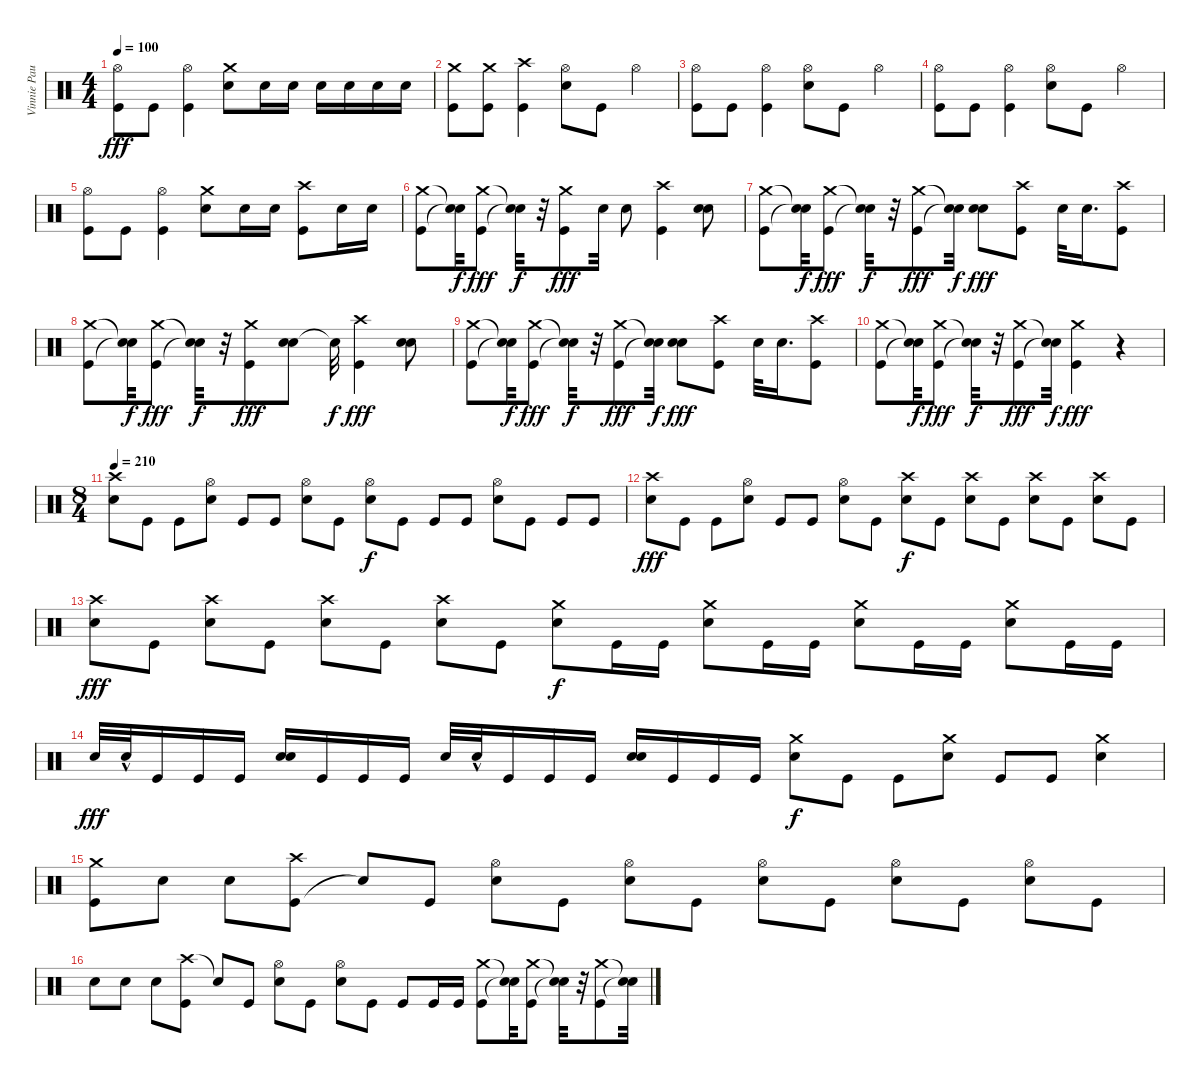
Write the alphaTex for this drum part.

\track ("Vinnie Paul (Drums)" "Vinnie Pau") {instrument percussion}
\staff {score}
\articulation defaults
\ts (4 4)
\tempo 100
\clef neutral
\ks c
("Kick (hit)" "Hi-Hat (open)").8{dy fff} "Kick (hit)".8 ("Kick (hit)" "Hi-Hat (open)").4 ("Electric Snare (hit)" "Crash medium (hit)").8 "Electric Snare (hit)".16 "Electric Snare (hit)".16 "Electric Snare (hit)".16 "Electric Snare (hit)".16 "Electric Snare (hit)".16 "Electric Snare (hit)".16 |
("Kick (hit)" "Crash medium (hit)").8 ("Kick (hit)" "Crash medium (hit)").8 ("Kick (hit)" "Crash high (hit)").4 ("Hi-Hat (open)" "Electric Snare (hit)").8 "Kick (hit)".8 "Hi-Hat (open)".4 |
("Kick (hit)" "Hi-Hat (open)").8 "Kick (hit)".8 ("Kick (hit)" "Hi-Hat (open)").4 ("Electric Snare (hit)" "Hi-Hat (open)").8 "Kick (hit)".8 "Hi-Hat (open)".4 |
("Kick (hit)" "Hi-Hat (open)").8 "Kick (hit)".8 ("Kick (hit)" "Hi-Hat (open)").4 ("Electric Snare (hit)" "Hi-Hat (open)").8 "Kick (hit)".8 "Hi-Hat (open)".4 |
("Kick (hit)" "Hi-Hat (open)").8 "Kick (hit)".8 ("Kick (hit)" "Hi-Hat (open)").4 ("Electric Snare (hit)" "Crash medium (hit)").8 "Electric Snare (hit)".16 "Electric Snare (hit)".16 ("Crash high (hit)" "Kick (hit)").8 "Electric Snare (hit)".16 "Electric Snare (hit)".16 |
("Kick (hit)" "Crash medium (hit)").8 ("Snare (hit)"{t} "Snare (hit)"{t}).32{dy f} ("Kick (hit)" "Crash medium (hit)").8{dy fff} ("Snare (hit)"{t} "Snare (hit)"{t}).32{dy f} r.32 ("Kick (hit)" "Crash medium (hit)").8{dy fff} "Electric Snare (hit)".32 "Electric Snare (hit)".8 ("Crash high (hit)" "Kick (hit)").4 ("Electric Snare (hit)" "Electric Snare (hit)").8 |
("Kick (hit)" "Crash medium (hit)").8 ("Snare (hit)"{t} "Snare (hit)"{t}).32{dy f} ("Kick (hit)" "Crash medium (hit)").8{dy fff} ("Snare (hit)"{t} "Snare (hit)"{t}).32{dy f} r.32 ("Kick (hit)" "Crash medium (hit)").8{dy fff} ("Snare (hit)"{t} "Snare (hit)"{t}).32{dy f} ("Electric Snare (hit)" "Electric Snare (hit)").8{dy fff} ("Crash high (hit)" "Kick (hit)").8 "Electric Snare (hit)".32 "Electric Snare (hit)".16{d} ("Crash high (hit)" "Kick (hit)").8 |
("Kick (hit)" "Crash medium (hit)").8 ("Snare (hit)"{t} "Snare (hit)"{t}).32{dy f} ("Kick (hit)" "Crash medium (hit)").8{dy fff} ("Snare (hit)"{t} "Snare (hit)"{t}).32{dy f} r.32 ("Kick (hit)" "Crash medium (hit)").8{dy fff} ("Electric Snare (hit)" "Electric Snare (hit)").8 "Snare (hit)"{t}.32{dy f} ("Crash high (hit)" "Kick (hit)").4{dy fff} ("Electric Snare (hit)" "Electric Snare (hit)").8 |
("Kick (hit)" "Crash medium (hit)").8 ("Snare (hit)"{t} "Snare (hit)"{t}).32{dy f} ("Kick (hit)" "Crash medium (hit)").8{dy fff} ("Snare (hit)"{t} "Snare (hit)"{t}).32{dy f} r.32 ("Kick (hit)" "Crash medium (hit)").8{dy fff} ("Snare (hit)"{t} "Snare (hit)"{t}).32{dy f} ("Electric Snare (hit)" "Electric Snare (hit)").8{dy fff} ("Crash high (hit)" "Kick (hit)").8 "Electric Snare (hit)".32 "Electric Snare (hit)".16{d} ("Crash high (hit)" "Kick (hit)").8 |
("Kick (hit)" "Crash medium (hit)").8 ("Snare (hit)"{t} "Snare (hit)"{t}).32{dy f} ("Kick (hit)" "Crash medium (hit)").8{dy fff} ("Snare (hit)"{t} "Snare (hit)"{t}).32{dy f} r.32 ("Kick (hit)" "Crash medium (hit)").8{dy fff} ("Snare (hit)"{t} "Snare (hit)"{t}).32{dy f} ("Kick (hit)" "Crash medium (hit)").4{dy fff} r.4 |
\ts (8 4)
\tempo 210
("Electric Snare (hit)" "Crash high (hit)").8 "Kick (hit)".8 "Kick (hit)".8 ("Hi-Hat (open)" "Electric Snare (hit)").8 "Kick (hit)".8 "Kick (hit)".8 ("Hi-Hat (open)" "Electric Snare (hit)").8 "Kick (hit)".8 ("Hi-Hat (open)" "Electric Snare (hit)").8{dy f} "Kick (hit)".8 "Kick (hit)".8 "Kick (hit)".8 ("Hi-Hat (open)" "Electric Snare (hit)").8 "Kick (hit)".8 "Kick (hit)".8 "Kick (hit)".8 |
("Electric Snare (hit)" "Crash high (hit)").8{dy fff} "Kick (hit)".8 "Kick (hit)".8 ("Hi-Hat (open)" "Electric Snare (hit)").8 "Kick (hit)".8 "Kick (hit)".8 ("Hi-Hat (open)" "Electric Snare (hit)").8 "Kick (hit)".8 ("Crash high (hit)" "Electric Snare (hit)").8{dy f} "Kick (hit)".8 ("Crash high (hit)" "Electric Snare (hit)").8 "Kick (hit)".8 ("Crash high (hit)" "Electric Snare (hit)").8 "Kick (hit)".8 ("Crash high (hit)" "Electric Snare (hit)").8 "Kick (hit)".8 |
("Crash high (hit)" "Electric Snare (hit)").8{dy fff} "Kick (hit)".8 ("Crash high (hit)" "Electric Snare (hit)").8 "Kick (hit)".8 ("Crash high (hit)" "Electric Snare (hit)").8 "Kick (hit)".8 ("Crash high (hit)" "Electric Snare (hit)").8 "Kick (hit)".8 ("Crash medium (hit)" "Electric Snare (hit)").8{dy f} "Kick (hit)".16 "Kick (hit)".16 ("Crash medium (hit)" "Electric Snare (hit)").8 "Kick (hit)".16 "Kick (hit)".16 ("Crash medium (hit)" "Electric Snare (hit)").8 "Kick (hit)".16 "Kick (hit)".16 ("Crash medium (hit)" "Electric Snare (hit)").8 "Kick (hit)".16 "Kick (hit)".16 |
"Electric Snare (hit)".32{dy fff} "Electric Snare (hit)"{hac}.32 "Kick (hit)".16 "Kick (hit)".16 "Kick (hit)".16 ("Electric Snare (hit)" "Electric Snare (hit)").16 "Kick (hit)".16 "Kick (hit)".16 "Kick (hit)".16 "Electric Snare (hit)".32 "Electric Snare (hit)"{hac}.32 "Kick (hit)".16 "Kick (hit)".16 "Kick (hit)".16 ("Electric Snare (hit)" "Electric Snare (hit)").16 "Kick (hit)".16 "Kick (hit)".16 "Kick (hit)".16 ("Electric Snare (hit)" "Crash medium (hit)").8{dy f} "Kick (hit)".8 "Kick (hit)".8 ("Crash medium (hit)" "Electric Snare (hit)").8 "Kick (hit)".8 "Kick (hit)".8 ("Crash medium (hit)" "Electric Snare (hit)").4 |
("Kick (hit)" "Crash medium (hit)").8 "Electric Snare (hit)".8 "Electric Snare (hit)".8 ("Kick (hit)" "Crash high (hit)").8 "Snare (hit)"{t}.8 "Kick (hit)".8 ("Hi-Hat (open)" "Electric Snare (hit)").8 "Kick (hit)".8 ("Hi-Hat (open)" "Electric Snare (hit)").8 "Kick (hit)".8 ("Hi-Hat (open)" "Electric Snare (hit)").8 "Kick (hit)".8 ("Hi-Hat (open)" "Electric Snare (hit)").8 "Kick (hit)".8 ("Hi-Hat (open)" "Electric Snare (hit)").8 "Kick (hit)".8 |
"Electric Snare (hit)".8 "Electric Snare (hit)".8 "Electric Snare (hit)".8 ("Crash high (hit)" "Kick (hit)").8 "Snare (hit)"{t}.8 "Kick (hit)".8 ("Hi-Hat (open)" "Electric Snare (hit)").8 "Kick (hit)".8 ("Hi-Hat (open)" "Electric Snare (hit)").8 "Kick (hit)".8 "Kick (hit)".8 "Kick (hit)".16 "Kick (hit)".16 ("Crash medium (hit)" "Kick (hit)").8 ("Snare (hit)"{t} "Snare (hit)"{t}).32 ("Crash medium (hit)" "Kick (hit)").8 ("Snare (hit)"{t} "Snare (hit)"{t}).32 r.32 ("Crash medium (hit)" "Kick (hit)").8 ("Snare (hit)"{t} "Snare (hit)"{t}).32
